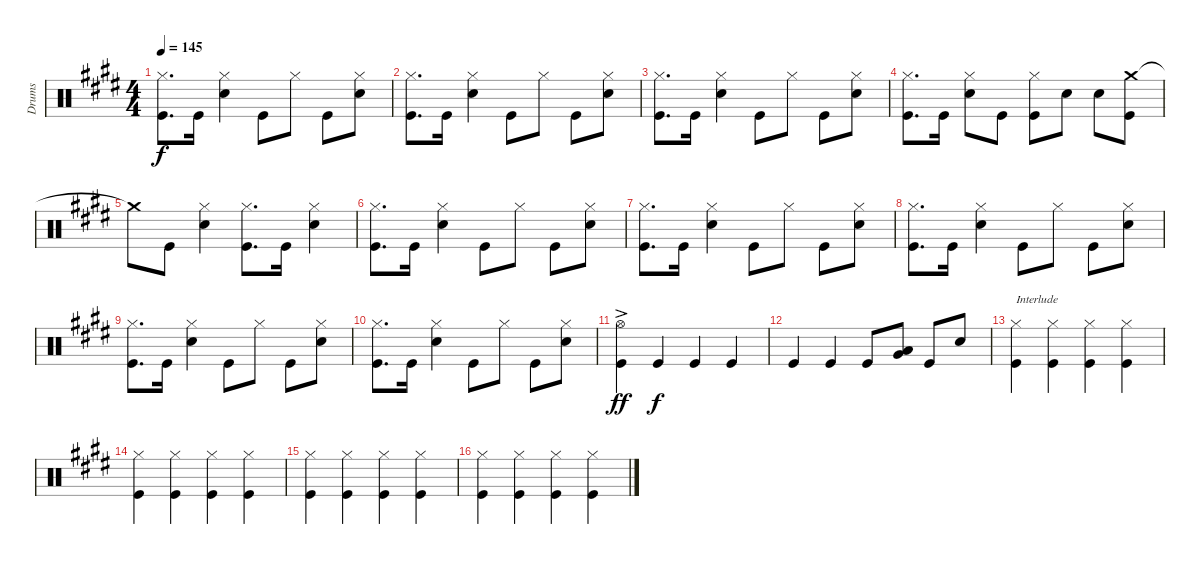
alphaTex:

\track ("Drums" "Drums") {instrument percussion}
\staff {score}
\articulation defaults
\ts (4 4)
\tempo 145
\clef neutral
\ks e
("Hi-Hat (closed)" "Kick (hit)").8{d dy f} "Kick (hit)".16 ("Hi-Hat (closed)" "Snare (hit) 2").4 "Kick (hit)".8 "Hi-Hat (closed)".8 "Kick (hit)".8 ("Hi-Hat (closed)" "Snare (hit) 2").8 |
("Hi-Hat (closed)" "Kick (hit)").8{d} "Kick (hit)".16 ("Hi-Hat (closed)" "Snare (hit) 2").4 "Kick (hit)".8 "Hi-Hat (closed)".8 "Kick (hit)".8 ("Hi-Hat (closed)" "Snare (hit) 2").8 |
("Hi-Hat (closed)" "Kick (hit)").8{d} "Kick (hit)".16 ("Hi-Hat (closed)" "Snare (hit) 2").4 "Kick (hit)".8 "Hi-Hat (closed)".8 "Kick (hit)".8 ("Hi-Hat (closed)" "Snare (hit) 2").8 |
("Hi-Hat (closed)" "Kick (hit)").8{d} "Kick (hit)".16 ("Hi-Hat (closed)" "Snare (hit) 2").8 "Kick (hit)".8 ("Hi-Hat (closed)" "Kick (hit)").8 "Snare (hit) 2".8 "Snare (hit) 2".8 ("Crash medium (hit)" "Kick (hit)").8 |
"Crash medium (hit)"{t}.8 "Kick (hit)".8 ("Hi-Hat (closed)" "Snare (hit) 2").4 ("Hi-Hat (closed)" "Kick (hit)").8{d} "Kick (hit)".16 ("Hi-Hat (closed)" "Snare (hit) 2").4 |
("Hi-Hat (closed)" "Kick (hit)").8{d} "Kick (hit)".16 ("Hi-Hat (closed)" "Snare (hit) 2").4 "Kick (hit)".8 "Hi-Hat (closed)".8 "Kick (hit)".8 ("Hi-Hat (closed)" "Snare (hit) 2").8 |
("Hi-Hat (closed)" "Kick (hit)").8{d} "Kick (hit)".16 ("Hi-Hat (closed)" "Snare (hit) 2").4 "Kick (hit)".8 "Hi-Hat (closed)".8 "Kick (hit)".8 ("Hi-Hat (closed)" "Snare (hit) 2").8 |
("Hi-Hat (closed)" "Kick (hit)").8{d} "Kick (hit)".16 ("Hi-Hat (closed)" "Snare (hit) 2").4 "Kick (hit)".8 "Hi-Hat (closed)".8 "Kick (hit)".8 ("Hi-Hat (closed)" "Snare (hit) 2").8 |
("Hi-Hat (closed)" "Kick (hit)").8{d} "Kick (hit)".16 ("Hi-Hat (closed)" "Snare (hit) 2").4 "Kick (hit)".8 "Hi-Hat (closed)".8 "Kick (hit)".8 ("Hi-Hat (closed)" "Snare (hit) 2").8 |
("Hi-Hat (closed)" "Kick (hit)").8{d} "Kick (hit)".16 ("Hi-Hat (closed)" "Snare (hit) 2").4 "Kick (hit)".8 "Hi-Hat (closed)".8 "Kick (hit)".8 ("Hi-Hat (closed)" "Snare (hit) 2").8 |
("Hi-Hat (open)"{ac} "Kick (hit)").4{dy ff} "Kick (hit)".4{dy f} "Kick (hit)".4 "Kick (hit)".4 |
"Kick (hit)".4 "Kick (hit)".4 "Kick (hit)".8 ("Low Tom (hit)" "Very Low Tom (hit)").8 "Kick (hit)".8 "Snare (hit) 2".8 |
("Hi-Hat (closed)" "Kick (hit)").4{txt "Interlude"} ("Hi-Hat (closed)" "Kick (hit)").4 ("Hi-Hat (closed)" "Kick (hit)").4 ("Hi-Hat (closed)" "Kick (hit)").4 |
("Hi-Hat (closed)" "Kick (hit)").4 ("Hi-Hat (closed)" "Kick (hit)").4 ("Hi-Hat (closed)" "Kick (hit)").4 ("Hi-Hat (closed)" "Kick (hit)").4 |
("Hi-Hat (closed)" "Kick (hit)").4 ("Hi-Hat (closed)" "Kick (hit)").4 ("Hi-Hat (closed)" "Kick (hit)").4 ("Hi-Hat (closed)" "Kick (hit)").4 |
("Hi-Hat (closed)" "Kick (hit)").4 ("Hi-Hat (closed)" "Kick (hit)").4 ("Hi-Hat (closed)" "Kick (hit)").4 ("Hi-Hat (closed)" "Kick (hit)").4
